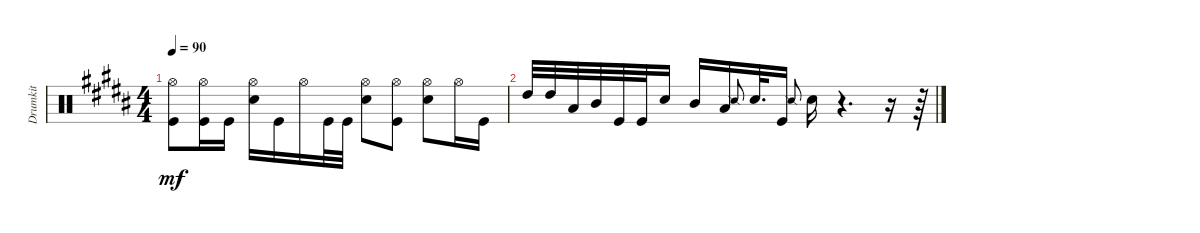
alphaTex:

\track ("Drumkit" "Drumkit") {instrument percussion}
\staff {score}
\articulation defaults
\ts (4 4)
\tempo 90
\clef neutral
\ks b
("Kick (hit)" "Hi-Hat (open)").8{dy mf} ("Kick (hit)" "Hi-Hat (open)").16 "Kick (hit)".16 ("Snare (hit) 2" "Hi-Hat (open)").16 "Kick (hit)".16 "Hi-Hat (open)".16 "Kick (hit)".32 "Kick (hit)".32 ("Snare (hit) 2" "Hi-Hat (open)").8 ("Kick (hit)" "Hi-Hat (open)").8 ("Snare (hit) 2" "Hi-Hat (open)").8 "Hi-Hat (open)".16 "Kick (hit)".16 |
"High Tom (hit)".32 "High Tom (hit)".32 "Low Tom (hit)".32 "Mid Tom (hit)".32 "Kick (hit)".32 "Kick (hit)".32 "Snare (hit) 2".16 "Mid Tom (hit)".16 "Low Tom (hit)".16 "Snare (side stick) 2".8{gr onbeat} "Snare (hit) 2".32{d} "Kick (hit)".16 "Snare (side stick) 2".8{gr onbeat} "Snare (hit) 2".16 r.4{d} r.16 r.64
